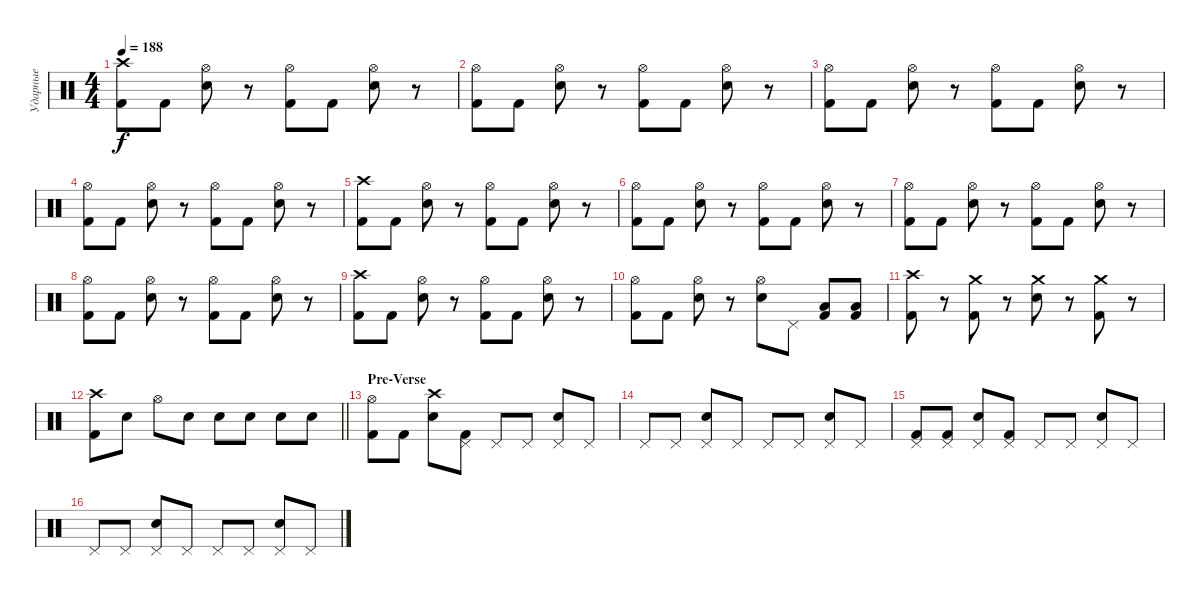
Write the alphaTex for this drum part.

\track ("Ударные" "Ударные") {instrument percussion}
\staff {score}
\articulation defaults
\ts (4 4)
\tempo 188
\clef neutral
\ks c
("Crash high (hit)" "Kick (hit) 2").8{dy f} "Kick (hit) 2".8 ("Hi-Hat (open)" "Electric Snare (hit)").8 r.8 ("Hi-Hat (open)" "Kick (hit) 2").8 "Kick (hit) 2".8 ("Hi-Hat (open)" "Electric Snare (hit)").8 r.8 |
("Hi-Hat (open)" "Kick (hit) 2").8 "Kick (hit) 2".8 ("Hi-Hat (open)" "Electric Snare (hit)").8 r.8 ("Hi-Hat (open)" "Kick (hit) 2").8 "Kick (hit) 2".8 ("Hi-Hat (open)" "Electric Snare (hit)").8 r.8 |
("Hi-Hat (open)" "Kick (hit) 2").8 "Kick (hit) 2".8 ("Hi-Hat (open)" "Electric Snare (hit)").8 r.8 ("Hi-Hat (open)" "Kick (hit) 2").8 "Kick (hit) 2".8 ("Hi-Hat (open)" "Electric Snare (hit)").8 r.8 |
("Hi-Hat (open)" "Kick (hit) 2").8 "Kick (hit) 2".8 ("Hi-Hat (open)" "Electric Snare (hit)").8 r.8 ("Hi-Hat (open)" "Kick (hit) 2").8 "Kick (hit) 2".8 ("Hi-Hat (open)" "Electric Snare (hit)").8 r.8 |
("Crash high (hit)" "Kick (hit) 2").8 "Kick (hit) 2".8 ("Hi-Hat (open)" "Electric Snare (hit)").8 r.8 ("Hi-Hat (open)" "Kick (hit) 2").8 "Kick (hit) 2".8 ("Hi-Hat (open)" "Electric Snare (hit)").8 r.8 |
("Hi-Hat (open)" "Kick (hit) 2").8 "Kick (hit) 2".8 ("Hi-Hat (open)" "Electric Snare (hit)").8 r.8 ("Hi-Hat (open)" "Kick (hit) 2").8 "Kick (hit) 2".8 ("Hi-Hat (open)" "Electric Snare (hit)").8 r.8 |
("Hi-Hat (open)" "Kick (hit) 2").8 "Kick (hit) 2".8 ("Hi-Hat (open)" "Electric Snare (hit)").8 r.8 ("Hi-Hat (open)" "Kick (hit) 2").8 "Kick (hit) 2".8 ("Hi-Hat (open)" "Electric Snare (hit)").8 r.8 |
("Hi-Hat (open)" "Kick (hit) 2").8 "Kick (hit) 2".8 ("Hi-Hat (open)" "Electric Snare (hit)").8 r.8 ("Hi-Hat (open)" "Kick (hit) 2").8 "Kick (hit) 2".8 ("Hi-Hat (open)" "Electric Snare (hit)").8 r.8 |
("Crash high (hit)" "Kick (hit) 2").8 "Kick (hit) 2".8 ("Hi-Hat (open)" "Electric Snare (hit)").8 r.8 ("Hi-Hat (open)" "Kick (hit) 2").8 "Kick (hit) 2".8 ("Hi-Hat (open)" "Electric Snare (hit)").8 r.8 |
("Hi-Hat (open)" "Kick (hit) 2").8 "Kick (hit) 2".8 ("Hi-Hat (open)" "Electric Snare (hit)").8 r.8 ("Hi-Hat (open)" "Electric Snare (hit)").8 "Pedal Hi-Hat (hit)".8 ("Low Tom (hit)" "Kick (hit) 2").8 ("Low Tom (hit)" "Kick (hit) 2").8 |
("Crash high (hit)" "Kick (hit) 2").8 r.8 ("Crash medium (hit)" "Kick (hit) 2").8 r.8 ("Crash medium (hit)" "Electric Snare (hit)").8 r.8 ("Crash medium (hit)" "Kick (hit) 2").8 r.8 |
\barLineRight lightlight
("Crash high (hit)" "Kick (hit) 2").8 "Electric Snare (hit)".8 "Hi-Hat (open)".8 "Electric Snare (hit)".8 "Electric Snare (hit)".8 "Electric Snare (hit)".8 "Electric Snare (hit)".8 "Electric Snare (hit)".8 |
\section ("" "Pre-Verse")
("Hi-Hat (open)" "Kick (hit) 2").8 "Kick (hit) 2".8 ("Crash high (hit)" "Electric Snare (hit)").8 ("Pedal Hi-Hat (hit)" "Kick (hit) 2").8 "Pedal Hi-Hat (hit)".8 "Pedal Hi-Hat (hit)".8 ("Pedal Hi-Hat (hit)" "Electric Snare (hit)").8 "Pedal Hi-Hat (hit)".8 |
"Pedal Hi-Hat (hit)".8 "Pedal Hi-Hat (hit)".8 ("Pedal Hi-Hat (hit)" "Electric Snare (hit)").8 "Pedal Hi-Hat (hit)".8 "Pedal Hi-Hat (hit)".8 "Pedal Hi-Hat (hit)".8 ("Pedal Hi-Hat (hit)" "Electric Snare (hit)").8 "Pedal Hi-Hat (hit)".8 |
("Pedal Hi-Hat (hit)" "Kick (hit) 2").8 ("Pedal Hi-Hat (hit)" "Kick (hit) 2").8 ("Pedal Hi-Hat (hit)" "Electric Snare (hit)").8 ("Pedal Hi-Hat (hit)" "Kick (hit) 2").8 "Pedal Hi-Hat (hit)".8 "Pedal Hi-Hat (hit)".8 ("Pedal Hi-Hat (hit)" "Electric Snare (hit)").8 "Pedal Hi-Hat (hit)".8 |
"Pedal Hi-Hat (hit)".8 "Pedal Hi-Hat (hit)".8 ("Pedal Hi-Hat (hit)" "Electric Snare (hit)").8 "Pedal Hi-Hat (hit)".8 "Pedal Hi-Hat (hit)".8 "Pedal Hi-Hat (hit)".8 ("Pedal Hi-Hat (hit)" "Electric Snare (hit)").8 "Pedal Hi-Hat (hit)".8
